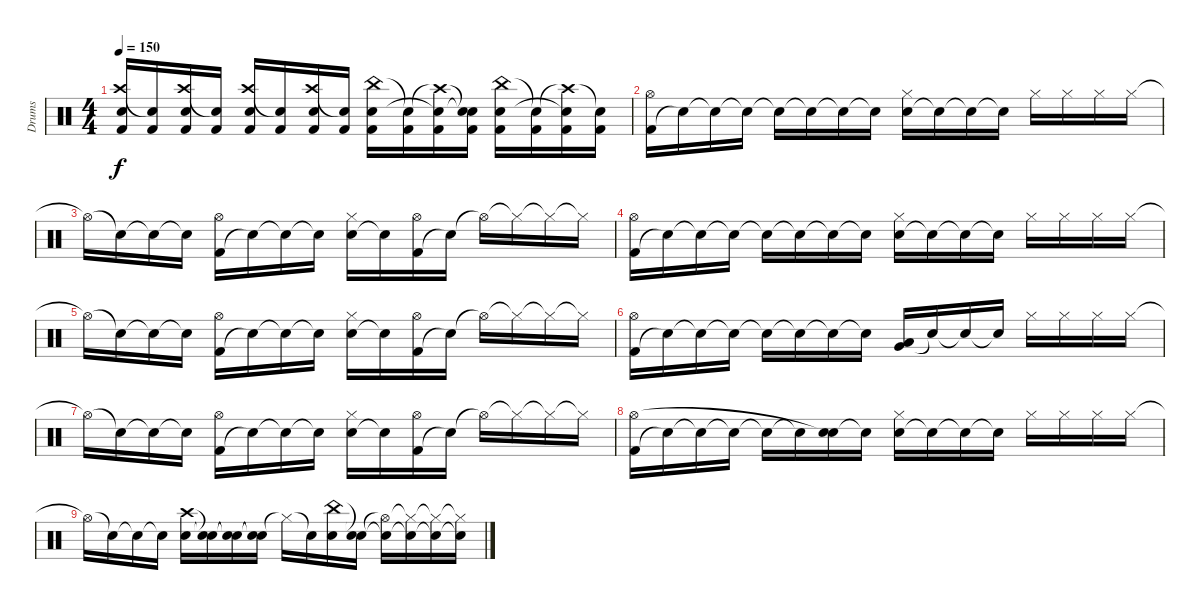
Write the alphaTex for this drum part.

\track ("Drums" "Drums") {instrument percussion}
\staff {score}
\articulation defaults
\ts (4 4)
\tempo 150
\clef neutral
\ks c
("Kick (hit) 2" "Crash high (hit)" "Electric Snare (hit)").16{dy f} ("Kick (hit) 2" "Snare (hit)"{t}).16 ("Kick (hit) 2" "Crash high (hit)" "Electric Snare (hit)").16 ("Kick (hit) 2" "Snare (hit)"{t}).16 ("Kick (hit) 2" "Crash high (hit)" "Electric Snare (hit)").16 ("Kick (hit) 2" "Snare (hit)"{t}).16 ("Kick (hit) 2" "Crash high (hit)" "Electric Snare (hit)").16 ("Kick (hit) 2" "Snare (hit)"{t}).16 ("Kick (hit) 2" "China (hit)" "Electric Snare (hit)").16 ("Kick (hit) 2" "Snare (hit)"{t}).16 ("Kick (hit) 2" "Crash high (hit)"{t} "Electric Snare (hit)"{t}).16 ("Kick (hit) 2" "Snare (hit)"{t} "Snare (hit)"{t}).16 ("Kick (hit) 2" "China (hit)" "Electric Snare (hit)").16 ("Kick (hit) 2" "Snare (hit)"{t}).16 ("Kick (hit) 2" "Crash high (hit)"{t} "Electric Snare (hit)"{t}).16 ("Kick (hit) 2" "Snare (hit)"{t}).16 |
("Kick (hit) 2" "Hi-Hat (open)").16 "Snare (hit)"{t}.16 "Snare (hit)"{t}.16 "Snare (hit)"{t}.16 "Snare (hit)"{t}.16 "Snare (hit)"{t}.16 "Snare (hit)"{t}.16 "Snare (hit)"{t}.16 ("Electric Snare (hit)" "Hi-Hat (closed)").16 "Snare (hit)"{t}.16 "Snare (hit)"{t}.16 "Snare (hit)"{t}.16 "Hi-Hat (closed)".16 "Hi-Hat (closed)".16 "Hi-Hat (closed)".16 "Hi-Hat (closed)".16 |
"Hi-Hat (open)"{t}.16 "Snare (hit)"{t}.16 "Snare (hit)"{t}.16 "Snare (hit)"{t}.16 ("Kick (hit) 2" "Hi-Hat (open)").16 "Snare (hit)"{t}.16 "Snare (hit)"{t}.16 "Snare (hit)"{t}.16 ("Electric Snare (hit)" "Hi-Hat (closed)").16 "Snare (hit)"{t}.16 ("Kick (hit) 2" "Hi-Hat (open)").16 "Snare (hit)"{t}.16 "Hi-Hat (open)"{t}.16 "Hi-Hat (closed)"{t}.16 "Hi-Hat (closed)"{t}.16 "Hi-Hat (closed)"{t}.16 |
("Kick (hit) 2" "Hi-Hat (open)").16 "Snare (hit)"{t}.16 "Snare (hit)"{t}.16 "Snare (hit)"{t}.16 "Snare (hit)"{t}.16 "Snare (hit)"{t}.16 "Snare (hit)"{t}.16 "Snare (hit)"{t}.16 ("Electric Snare (hit)" "Hi-Hat (closed)").16 "Snare (hit)"{t}.16 "Snare (hit)"{t}.16 "Snare (hit)"{t}.16 "Hi-Hat (closed)".16 "Hi-Hat (closed)".16 "Hi-Hat (closed)".16 "Hi-Hat (closed)".16 |
"Hi-Hat (open)"{t}.16 "Snare (hit)"{t}.16 "Snare (hit)"{t}.16 "Snare (hit)"{t}.16 ("Kick (hit) 2" "Hi-Hat (open)").16 "Snare (hit)"{t}.16 "Snare (hit)"{t}.16 "Snare (hit)"{t}.16 ("Electric Snare (hit)" "Hi-Hat (closed)").16 "Snare (hit)"{t}.16 ("Kick (hit) 2" "Hi-Hat (open)").16 "Snare (hit)"{t}.16 "Hi-Hat (open)"{t}.16 "Hi-Hat (closed)"{t}.16 "Hi-Hat (closed)"{t}.16 "Hi-Hat (closed)"{t}.16 |
("Kick (hit) 2" "Hi-Hat (open)").16 "Snare (hit)"{t}.16 "Snare (hit)"{t}.16 "Snare (hit)"{t}.16 "Snare (hit)"{t}.16 "Snare (hit)"{t}.16 "Snare (hit)"{t}.16 "Snare (hit)"{t}.16 ("Very Low Tom (hit)" "Low Floor Tom (hit)").16 "Snare (hit)"{t}.16 "Snare (hit)"{t}.16 "Snare (hit)"{t}.16 "Hi-Hat (closed)".16 "Hi-Hat (closed)".16 "Hi-Hat (closed)".16 "Hi-Hat (closed)".16 |
"Hi-Hat (open)"{t}.16 "Snare (hit)"{t}.16 "Snare (hit)"{t}.16 "Snare (hit)"{t}.16 ("Kick (hit) 2" "Hi-Hat (open)").16 "Snare (hit)"{t}.16 "Snare (hit)"{t}.16 "Snare (hit)"{t}.16 ("Electric Snare (hit)" "Hi-Hat (closed)").16 "Snare (hit)"{t}.16 ("Kick (hit) 2" "Hi-Hat (open)").16 "Snare (hit)"{t}.16 "Hi-Hat (open)"{t}.16 "Hi-Hat (closed)"{t}.16 "Hi-Hat (closed)"{t}.16 "Hi-Hat (closed)"{t}.16 |
("Kick (hit) 2" "Hi-Hat (open)").16 "Snare (hit)"{t}.16 "Snare (hit)"{t}.16 "Snare (hit)"{t}.16 "Snare (hit)"{t}.16 "Snare (hit)"{t}.16 ("Electric Snare (hit)" "Snare (hit)"{t}).16 "Snare (hit)"{t}.16 ("Electric Snare (hit)" "Hi-Hat (closed)").16 "Snare (hit)"{t}.16 "Snare (hit)"{t}.16 "Snare (hit)"{t}.16 "Hi-Hat (closed)".16 "Hi-Hat (closed)".16 "Hi-Hat (closed)".16 "Hi-Hat (closed)".16 |
"Hi-Hat (open)"{t}.16 "Snare (hit)"{t}.16 "Snare (hit)"{t}.16 "Snare (hit)"{t}.16 ("Electric Snare (hit)" "Crash high (hit)").16 ("Snare (hit)"{t} "Snare (hit)"{t}).16 ("Snare (hit)"{t} "Snare (hit)"{t}).16 ("Snare (hit)"{t} "Snare (hit)"{t}).16 "Hi-Hat (closed)"{t}.16 "Snare (hit)"{t}.16 ("Electric Snare (hit)" "China (hit)").16 ("Snare (hit)"{t} "Snare (hit)"{t}).16 ("Electric Snare (hit)"{t} "Hi-Hat (open)"{t}).16 ("Snare (hit)"{t} "Hi-Hat (closed)"{t}).16 ("Snare (hit)"{t} "Hi-Hat (closed)"{t}).16 ("Snare (hit)"{t} "Hi-Hat (closed)"{t}).16
